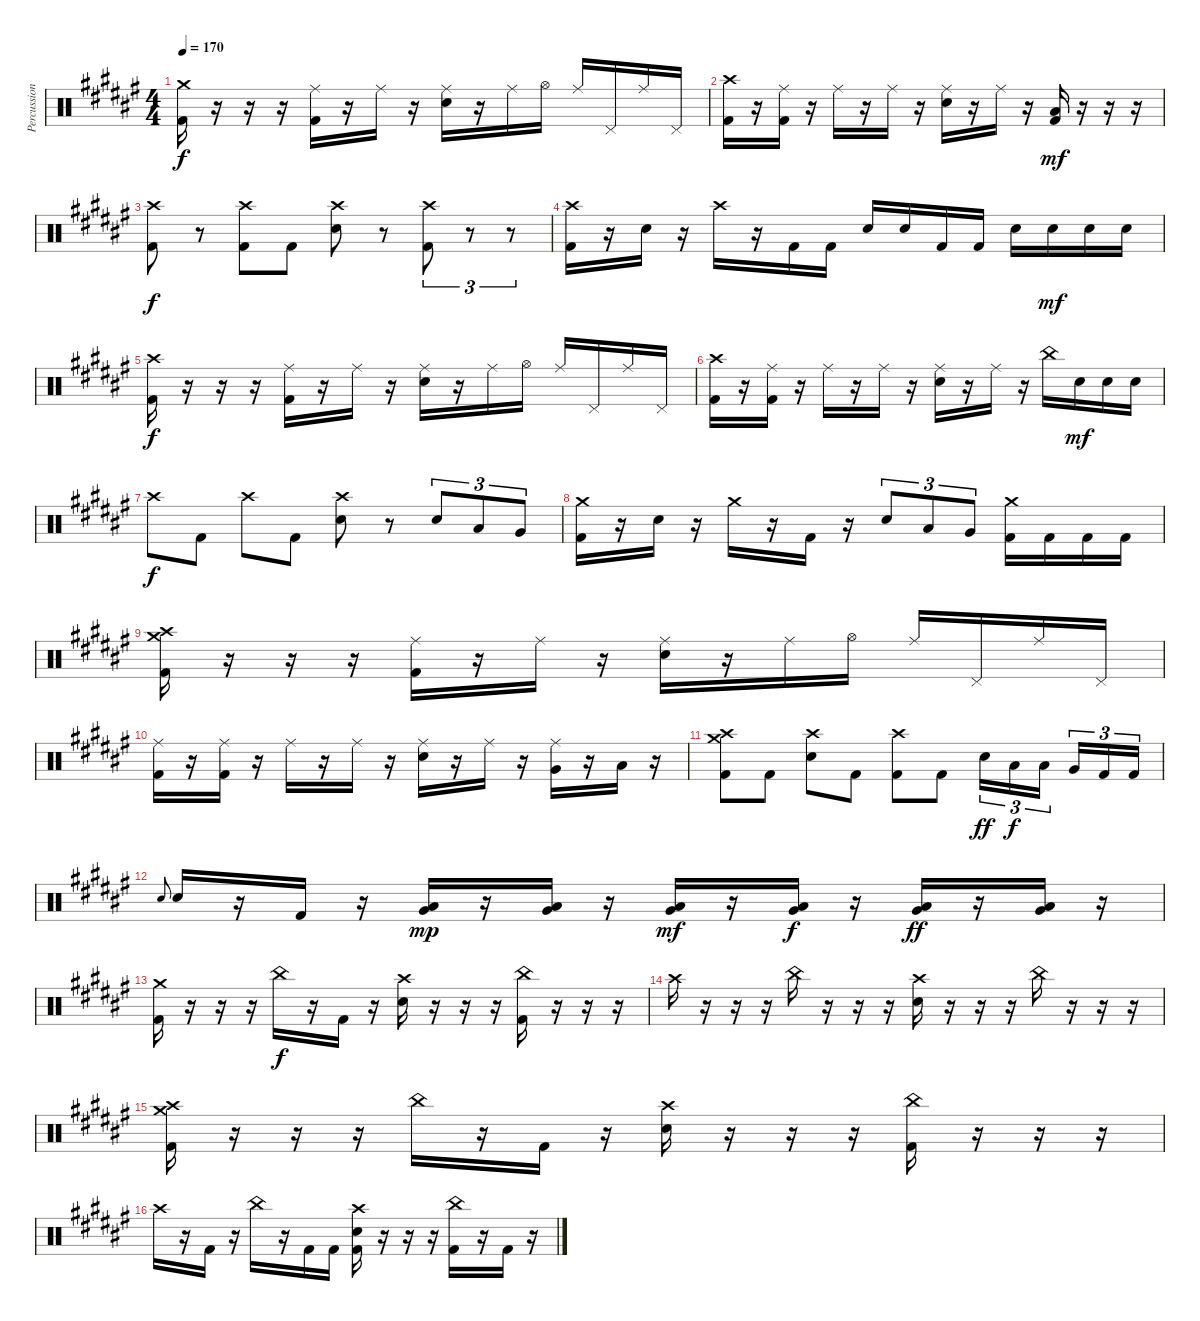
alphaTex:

\track ("Percussion" "Percussion") {instrument percussion}
\staff {score}
\articulation defaults
\ts (4 4)
\tempo 170
\clef neutral
\ks d#minor
("Crash medium (hit)" "Kick (hit) 2").16{dy f} r.16 r.16 r.16 ("Ride (middle)" "Kick (hit) 2").16 r.16 "Ride (middle)".16 r.16 ("Ride (middle)" "Electric Snare (hit)").16 r.16 "Ride (middle)".16 "Hi-Hat (open)".16 "Ride (middle)".16 "Pedal Hi-Hat (hit)".16 "Ride (middle)".16 "Pedal Hi-Hat (hit)".16 |
("Crash high (hit)" "Kick (hit) 2").16 r.16 ("Ride (middle)" "Kick (hit) 2").16 r.16 "Ride (middle)".16 r.16 "Ride (middle)".16 r.16 ("Ride (middle)" "Electric Snare (hit)").16 r.16 "Ride (middle)".16 r.16 ("Low Floor Tom (hit)" "Kick (hit) 2").16{dy mf} r.16 r.16 r.16 |
("Crash high (hit)" "Kick (hit) 2").8{dy f} r.8 ("Crash high (hit)" "Kick (hit) 2").8 "Kick (hit) 2".8 ("Crash high (hit)" "Electric Snare (hit)").8 r.8 ("Crash high (hit)" "Kick (hit) 2").8{tu (3 2)} r.8{tu (3 2)} r.8{tu (3 2)} |
("Crash high (hit)" "Kick (hit) 2").16 r.16 "Electric Snare (hit)".16 r.16 "Crash high (hit)".16 r.16 "Kick (hit) 2".16 "Kick (hit) 2".16 "Electric Snare (hit)".16 "Electric Snare (hit)".16 "Kick (hit) 2".16 "Kick (hit) 2".16 "Electric Snare (hit)".16 "Electric Snare (hit)".16{dy mf} "Electric Snare (hit)".16 "Electric Snare (hit)".16 |
("Crash high (hit)" "Kick (hit) 2").16{dy f} r.16 r.16 r.16 ("Ride (middle)" "Kick (hit) 2").16 r.16 "Ride (middle)".16 r.16 ("Ride (middle)" "Electric Snare (hit)").16 r.16 "Ride (middle)".16 "Hi-Hat (open)".16 "Ride (middle)".16 "Pedal Hi-Hat (hit)".16 "Ride (middle)".16 "Pedal Hi-Hat (hit)".16 |
("Crash high (hit)" "Kick (hit) 2").16 r.16 ("Ride (middle)" "Kick (hit) 2").16 r.16 "Ride (middle)".16 r.16 "Ride (middle)".16 r.16 ("Ride (middle)" "Electric Snare (hit)").16 r.16 "Ride (middle)".16 r.16 "China (hit)".16 "Electric Snare (hit)".16{dy mf} "Electric Snare (hit)".16 "Electric Snare (hit)".16 |
"Crash high (hit)".8{dy f} "Kick (hit) 2".8 "Crash high (hit)".8 "Kick (hit) 2".8 ("Crash high (hit)" "Electric Snare (hit)").8 r.8 "Electric Snare (hit)".8{tu (3 2)} "Low Tom (hit)".8{tu (3 2)} "Very Low Tom (hit)".8{tu (3 2)} |
("Crash medium (hit)" "Kick (hit) 2").16 r.16 "Electric Snare (hit)".16 r.16 "Crash medium (hit)".16 r.16 "Kick (hit) 2".16 r.16 "Electric Snare (hit)".8{tu (3 2)} "Low Tom (hit)".8{tu (3 2)} "Very Low Tom (hit)".8{tu (3 2)} ("Crash medium (hit)" "Kick (hit) 2").16 "Kick (hit) 2".16 "Kick (hit) 2".16 "Kick (hit) 2".16 |
("Crash high (hit)" "Crash medium (hit)" "Kick (hit) 2").16 r.16 r.16 r.16 ("Ride (middle)" "Kick (hit) 2").16 r.16 "Ride (middle)".16 r.16 ("Ride (middle)" "Electric Snare (hit)").16 r.16 "Ride (middle)".16 "Hi-Hat (open)".16 "Ride (middle)".16 "Pedal Hi-Hat (hit)".16 "Ride (middle)".16 "Pedal Hi-Hat (hit)".16 |
("Ride (middle)" "Kick (hit) 2").16 r.16 ("Ride (middle)" "Kick (hit) 2").16 r.16 "Ride (middle)".16 r.16 "Ride (middle)".16 r.16 ("Ride (middle)" "Electric Snare (hit)").16 r.16 "Ride (middle)".16 r.16 ("Ride (middle)" "Very Low Tom (hit)").16 r.16 "Low Floor Tom (hit)".16 r.16 |
("Crash high (hit)" "Crash medium (hit)" "Kick (hit) 2").8 "Kick (hit) 2".8 ("Crash high (hit)" "Electric Snare (hit)").8 "Kick (hit) 2".8 ("Crash high (hit)" "Kick (hit) 2").8 "Kick (hit) 2".8 "Electric Snare (hit)".16{tu (3 2) dy ff} "Low Tom (hit)".16{tu (3 2) dy f} "Low Floor Tom (hit)".16{tu (3 2) beam splitsecondary} "Very Low Tom (hit)".16{tu (3 2)} "Kick (hit) 2".16{tu (3 2)} "Kick (hit) 2".16{tu (3 2)} |
"Electric Snare (hit)".8{gr onbeat} "Electric Snare (hit)".16 r.16 "Kick (hit) 2".16 r.16 ("Low Floor Tom (hit)" "Very Low Tom (hit)").16{dy mp} r.16 ("Low Floor Tom (hit)" "Very Low Tom (hit)").16 r.16 ("Low Floor Tom (hit)" "Very Low Tom (hit)").16{dy mf} r.16 ("Low Floor Tom (hit)" "Very Low Tom (hit)").16{dy f} r.16 ("Low Floor Tom (hit)" "Very Low Tom (hit)").16{dy ff} r.16 ("Low Floor Tom (hit)" "Very Low Tom (hit)").16 r.16 |
("Crash medium (hit)" "Kick (hit) 2").16 r.16 r.16 r.16 "China (hit)".16{dy f} r.16 "Kick (hit) 2".16 r.16 ("Crash high (hit)" "Electric Snare (hit)").16 r.16 r.16 r.16 ("China (hit)" "Kick (hit) 2").16 r.16 r.16 r.16 |
"Crash high (hit)".16 r.16 r.16 r.16 "China (hit)".16 r.16 r.16 r.16 ("Crash high (hit)" "Electric Snare (hit)").16 r.16 r.16 r.16 "China (hit)".16 r.16 r.16 r.16 |
("Crash high (hit)" "Crash medium (hit)" "Kick (hit) 2").16 r.16 r.16 r.16 "China (hit)".16 r.16 "Kick (hit) 2".16 r.16 ("Crash high (hit)" "Electric Snare (hit)").16 r.16 r.16 r.16 ("China (hit)" "Kick (hit) 2").16 r.16 r.16 r.16 |
"Crash high (hit)".16 r.16 "Kick (hit) 2".16 r.16 "China (hit)".16 r.16 "Kick (hit) 2".16 "Kick (hit) 2".16 ("Crash high (hit)" "Electric Snare (hit)" "Kick (hit) 2").16 r.16 r.16 r.16 ("China (hit)" "Kick (hit) 2").16 r.16 "Kick (hit) 2".16 r.16
